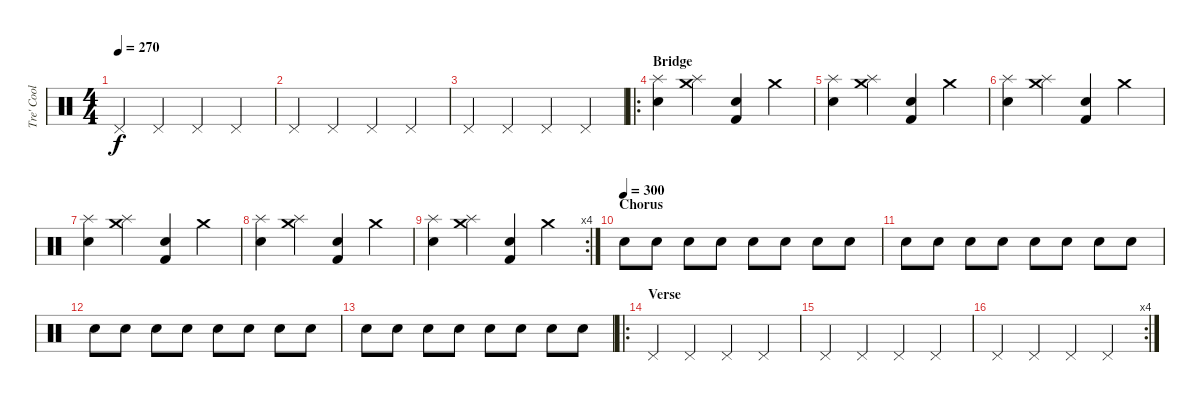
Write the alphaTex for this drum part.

\track ("Tre' Cool" "Tre' Cool") {instrument percussion}
\staff {score}
\articulation defaults
\ts (4 4)
\tempo 270
\clef neutral
\ks c "Pedal Hi-Hat (hit)".4{dy f} "Pedal Hi-Hat (hit)".4 "Pedal Hi-Hat (hit)".4 "Pedal Hi-Hat (hit)".4
|
"Pedal Hi-Hat (hit)".4 "Pedal Hi-Hat (hit)".4 "Pedal Hi-Hat (hit)".4 "Pedal Hi-Hat (hit)".4 |
"Pedal Hi-Hat (hit)".4 "Pedal Hi-Hat (hit)".4 "Pedal Hi-Hat (hit)".4 "Pedal Hi-Hat (hit)".4 |
\ro
\section ("" "Bridge")
("Snare (hit) 2" "Splash (hit)").4 ("Crash medium (hit)" "Splash (hit)").4 ("Kick (hit) 2" "Snare (hit) 2").4 "Crash medium (hit)".4 |
("Snare (hit) 2" "Splash (hit)").4 ("Crash medium (hit)" "Splash (hit)").4 ("Kick (hit) 2" "Snare (hit) 2").4 "Crash medium (hit)".4 |
("Snare (hit) 2" "Splash (hit)").4 ("Crash medium (hit)" "Splash (hit)").4 ("Kick (hit) 2" "Snare (hit) 2").4 "Crash medium (hit)".4 |
("Snare (hit) 2" "Splash (hit)").4 ("Crash medium (hit)" "Splash (hit)").4 ("Kick (hit) 2" "Snare (hit) 2").4 "Crash medium (hit)".4 |
("Snare (hit) 2" "Splash (hit)").4 ("Crash medium (hit)" "Splash (hit)").4 ("Kick (hit) 2" "Snare (hit) 2").4 "Crash medium (hit)".4 |
\rc 4
("Snare (hit) 2" "Splash (hit)").4 ("Crash medium (hit)" "Splash (hit)").4 ("Kick (hit) 2" "Snare (hit) 2").4 "Crash medium (hit)".4 |
\section ("" "Chorus")
\tempo (300)
"Snare (hit) 2".8 "Snare (hit) 2".8 "Snare (hit) 2".8 "Snare (hit) 2".8 "Snare (hit) 2".8 "Snare (hit) 2".8 "Snare (hit) 2".8 "Snare (hit) 2".8 |
"Snare (hit) 2".8 "Snare (hit) 2".8 "Snare (hit) 2".8 "Snare (hit) 2".8 "Snare (hit) 2".8 "Snare (hit) 2".8 "Snare (hit) 2".8 "Snare (hit) 2".8 |
"Snare (hit) 2".8 "Snare (hit) 2".8 "Snare (hit) 2".8 "Snare (hit) 2".8 "Snare (hit) 2".8 "Snare (hit) 2".8 "Snare (hit) 2".8 "Snare (hit) 2".8 |
"Snare (hit) 2".8 "Snare (hit) 2".8 "Snare (hit) 2".8 "Snare (hit) 2".8 "Snare (hit) 2".8 "Snare (hit) 2".8 "Snare (hit) 2".8 "Snare (hit) 2".8 |
\ro
\section ("" "Verse")
"Pedal Hi-Hat (hit)".4 "Pedal Hi-Hat (hit)".4 "Pedal Hi-Hat (hit)".4 "Pedal Hi-Hat (hit)".4 |
"Pedal Hi-Hat (hit)".4 "Pedal Hi-Hat (hit)".4 "Pedal Hi-Hat (hit)".4 "Pedal Hi-Hat (hit)".4 |
\rc 4 "Pedal Hi-Hat (hit)".4 "Pedal Hi-Hat (hit)".4 "Pedal Hi-Hat (hit)".4 "Pedal Hi-Hat (hit)".4
